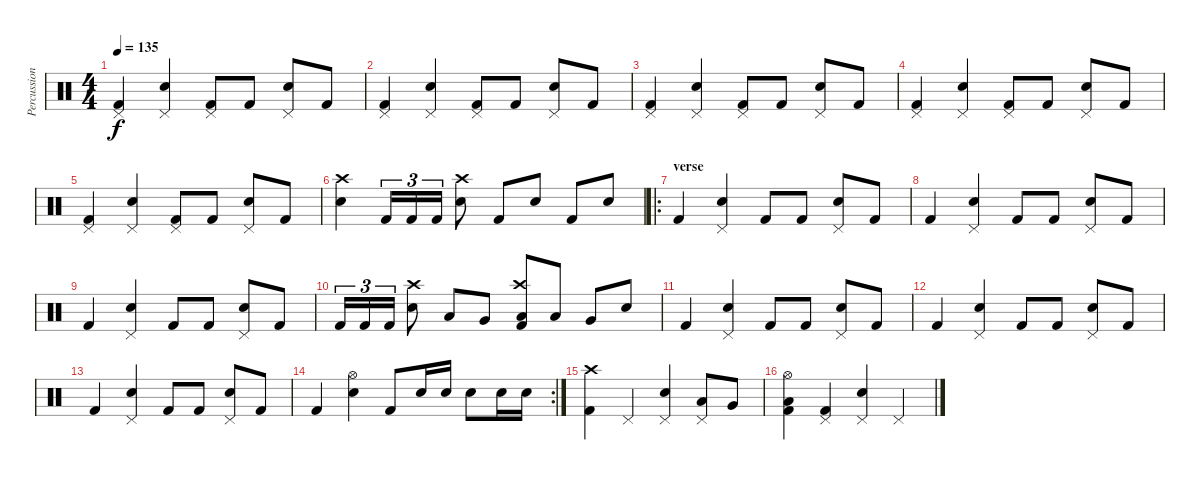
\track ("Percussion" "Percussion") {instrument percussion}
\staff {score}
\articulation defaults
\ts (4 4)
\tempo 135
\clef neutral
\ks c
("Pedal Hi-Hat (hit)" "Kick (hit) 2").4{dy f} ("Pedal Hi-Hat (hit)" "Electric Snare (hit)").4 ("Pedal Hi-Hat (hit)" "Kick (hit) 2").8 "Kick (hit) 2".8 ("Pedal Hi-Hat (hit)" "Electric Snare (hit)").8 "Kick (hit) 2".8 |
("Pedal Hi-Hat (hit)" "Kick (hit) 2").4 ("Pedal Hi-Hat (hit)" "Electric Snare (hit)").4 ("Pedal Hi-Hat (hit)" "Kick (hit) 2").8 "Kick (hit) 2".8 ("Pedal Hi-Hat (hit)" "Electric Snare (hit)").8 "Kick (hit) 2".8 |
("Pedal Hi-Hat (hit)" "Kick (hit) 2").4 ("Pedal Hi-Hat (hit)" "Electric Snare (hit)").4 ("Pedal Hi-Hat (hit)" "Kick (hit) 2").8 "Kick (hit) 2".8 ("Pedal Hi-Hat (hit)" "Electric Snare (hit)").8 "Kick (hit) 2".8 |
("Pedal Hi-Hat (hit)" "Kick (hit) 2").4 ("Pedal Hi-Hat (hit)" "Electric Snare (hit)").4 ("Pedal Hi-Hat (hit)" "Kick (hit) 2").8 "Kick (hit) 2".8 ("Pedal Hi-Hat (hit)" "Electric Snare (hit)").8 "Kick (hit) 2".8 |
("Pedal Hi-Hat (hit)" "Kick (hit) 2").4 ("Pedal Hi-Hat (hit)" "Electric Snare (hit)").4 ("Pedal Hi-Hat (hit)" "Kick (hit) 2").8 "Kick (hit) 2".8 ("Pedal Hi-Hat (hit)" "Electric Snare (hit)").8 "Kick (hit) 2".8 |
("Crash high (hit)" "Electric Snare (hit)").4 "Kick (hit) 2".16{tu (3 2)} "Kick (hit) 2".16{tu (3 2)} "Kick (hit) 2".16{tu (3 2)} ("Crash high (hit)" "Electric Snare (hit)").8 "Kick (hit) 2".8 "Electric Snare (hit)".8 "Kick (hit) 2".8 "Electric Snare (hit)".8 |
\ro
\section ("" "verse")
"Kick (hit) 2".4 ("Pedal Hi-Hat (hit)" "Electric Snare (hit)").4 "Kick (hit) 2".8 "Kick (hit) 2".8 ("Pedal Hi-Hat (hit)" "Electric Snare (hit)").8 "Kick (hit) 2".8 |
"Kick (hit) 2".4 ("Pedal Hi-Hat (hit)" "Electric Snare (hit)").4 "Kick (hit) 2".8 "Kick (hit) 2".8 ("Pedal Hi-Hat (hit)" "Electric Snare (hit)").8 "Kick (hit) 2".8 |
"Kick (hit) 2".4 ("Pedal Hi-Hat (hit)" "Electric Snare (hit)").4 "Kick (hit) 2".8 "Kick (hit) 2".8 ("Pedal Hi-Hat (hit)" "Electric Snare (hit)").8 "Kick (hit) 2".8 |
"Kick (hit) 2".16{tu (3 2)} "Kick (hit) 2".16{tu (3 2)} "Kick (hit) 2".16{tu (3 2)} ("Crash high (hit)" "Electric Snare (hit)").8 "Low Tom (hit)".8 "Very Low Tom (hit)".8 ("Crash high (hit)" "Low Floor Tom (hit)" "Kick (hit) 2").8 "Low Tom (hit)".8 "Very Low Tom (hit)".8 "Electric Snare (hit)".8 |
"Kick (hit) 2".4 ("Pedal Hi-Hat (hit)" "Electric Snare (hit)").4 "Kick (hit) 2".8 "Kick (hit) 2".8 ("Pedal Hi-Hat (hit)" "Electric Snare (hit)").8 "Kick (hit) 2".8 |
"Kick (hit) 2".4 ("Pedal Hi-Hat (hit)" "Electric Snare (hit)").4 "Kick (hit) 2".8 "Kick (hit) 2".8 ("Pedal Hi-Hat (hit)" "Electric Snare (hit)").8 "Kick (hit) 2".8 |
"Kick (hit) 2".4 ("Pedal Hi-Hat (hit)" "Electric Snare (hit)").4 "Kick (hit) 2".8 "Kick (hit) 2".8 ("Pedal Hi-Hat (hit)" "Electric Snare (hit)").8 "Kick (hit) 2".8 |
\rc 2 "Kick (hit) 2".4
("Hi-Hat (open)" "Electric Snare (hit)").4 "Kick (hit) 2".8 "Electric Snare (hit)".16 "Electric Snare (hit)".16 "Electric Snare (hit)".8 "Electric Snare (hit)".16 "Electric Snare (hit)".16 |
("Crash high (hit)" "Kick (hit) 2").4 "Pedal Hi-Hat (hit)".4 ("Pedal Hi-Hat (hit)" "Electric Snare (hit)").4 ("Pedal Hi-Hat (hit)" "Low Floor Tom (hit)").8 "Very Low Tom (hit)".8 |
("Hi-Hat (open)" "Low Tom (hit)" "Kick (hit) 2").4 ("Pedal Hi-Hat (hit)" "Kick (hit) 2").4 ("Pedal Hi-Hat (hit)" "Electric Snare (hit)").4 "Pedal Hi-Hat (hit)".4
